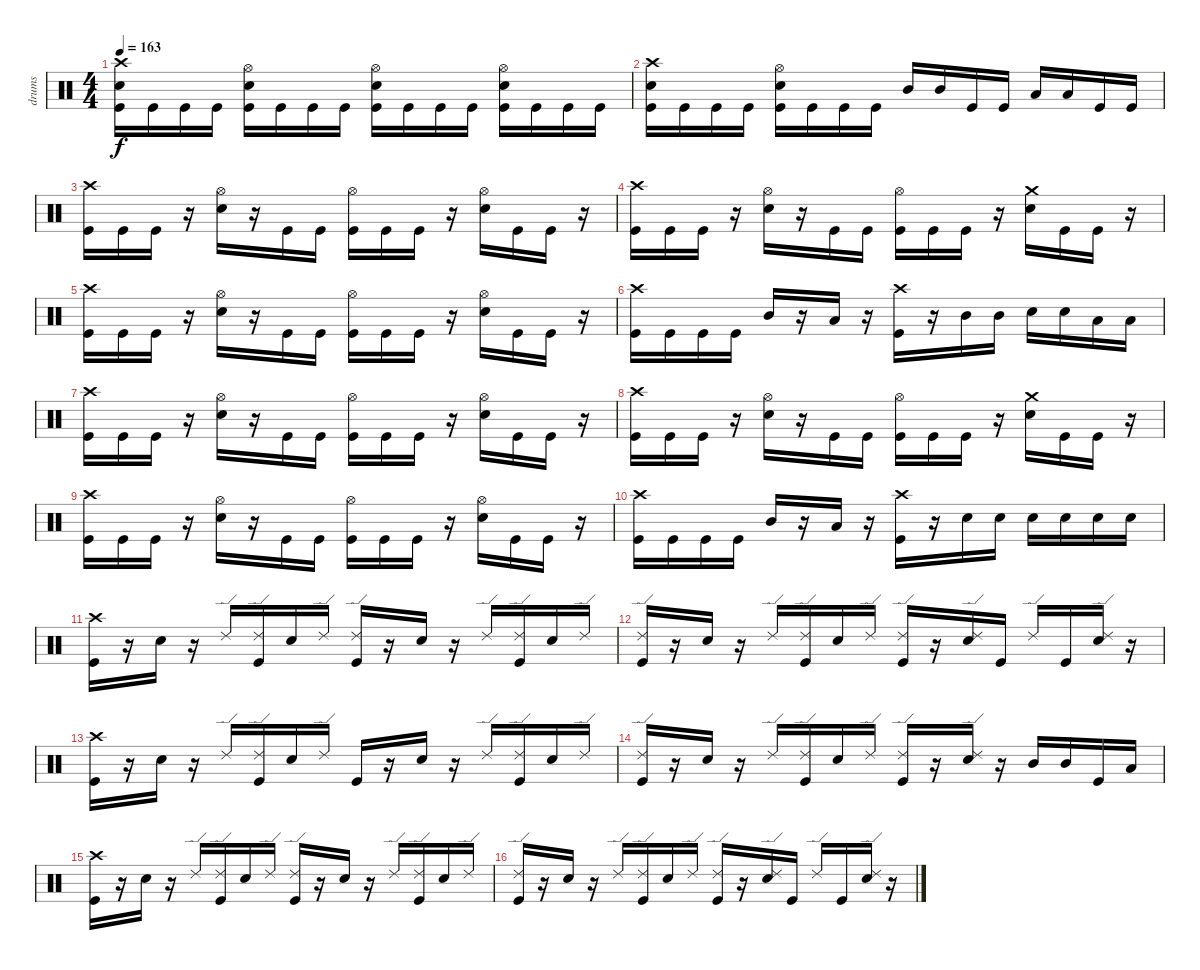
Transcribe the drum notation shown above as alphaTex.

\track ("drums" "drums") {instrument percussion}
\staff {score}
\articulation defaults
\ts (4 4)
\tempo 163
\clef neutral
\ks c
("Crash high (hit)" "Snare (hit) 2" "Kick (hit)").16{dy f} "Kick (hit)".16 "Kick (hit)".16 "Kick (hit)".16 ("Hi-Hat (open)" "Snare (hit) 2" "Kick (hit)").16 "Kick (hit)".16 "Kick (hit)".16 "Kick (hit)".16 ("Hi-Hat (open)" "Snare (hit) 2" "Kick (hit)").16 "Kick (hit)".16 "Kick (hit)".16 "Kick (hit)".16 ("Hi-Hat (open)" "Snare (hit) 2" "Kick (hit)").16 "Kick (hit)".16 "Kick (hit)".16 "Kick (hit)".16 |
("Crash high (hit)" "Snare (hit) 2" "Kick (hit)").16 "Kick (hit)".16 "Kick (hit)".16 "Kick (hit)".16 ("Hi-Hat (open)" "Snare (hit) 2" "Kick (hit)").16 "Kick (hit)".16 "Kick (hit)".16 "Kick (hit)".16 "Mid Tom (hit)".16 "Mid Tom (hit)".16 "Kick (hit)".16 "Kick (hit)".16 "Low Tom (hit)".16 "Low Tom (hit)".16 "Kick (hit)".16 "Kick (hit)".16 |
("Crash high (hit)" "Kick (hit)").16 "Kick (hit)".16 "Kick (hit)".16 r.16 ("Hi-Hat (open)" "Snare (hit) 2").16 r.16 "Kick (hit)".16 "Kick (hit)".16 ("Hi-Hat (open)" "Kick (hit)").16 "Kick (hit)".16 "Kick (hit)".16 r.16 ("Hi-Hat (open)" "Snare (hit) 2").16 "Kick (hit)".16 "Kick (hit)".16 r.16 |
("Crash high (hit)" "Kick (hit)").16 "Kick (hit)".16 "Kick (hit)".16 r.16 ("Hi-Hat (open)" "Snare (hit) 2").16 r.16 "Kick (hit)".16 "Kick (hit)".16 ("Hi-Hat (open)" "Kick (hit)").16 "Kick (hit)".16 "Kick (hit)".16 r.16 ("Crash medium (hit)" "Snare (hit) 2").16 "Kick (hit)".16 "Kick (hit)".16 r.16 |
("Crash high (hit)" "Kick (hit)").16 "Kick (hit)".16 "Kick (hit)".16 r.16 ("Hi-Hat (open)" "Snare (hit) 2").16 r.16 "Kick (hit)".16 "Kick (hit)".16 ("Hi-Hat (open)" "Kick (hit)").16 "Kick (hit)".16 "Kick (hit)".16 r.16 ("Hi-Hat (open)" "Snare (hit) 2").16 "Kick (hit)".16 "Kick (hit)".16 r.16 |
("Crash high (hit)" "Kick (hit)").16 "Kick (hit)".16 "Kick (hit)".16 "Kick (hit)".16 "Mid Tom (hit)".16 r.16 "Low Tom (hit)".16 r.16 ("Crash high (hit)" "Kick (hit)").16 r.16 "Mid Tom (hit)".16 "Mid Tom (hit)".16 "Snare (hit) 2".16 "Snare (hit) 2".16 "Low Tom (hit)".16 "Low Tom (hit)".16 |
("Crash high (hit)" "Kick (hit)").16 "Kick (hit)".16 "Kick (hit)".16 r.16 ("Hi-Hat (open)" "Snare (hit) 2").16 r.16 "Kick (hit)".16 "Kick (hit)".16 ("Hi-Hat (open)" "Kick (hit)").16 "Kick (hit)".16 "Kick (hit)".16 r.16 ("Hi-Hat (open)" "Snare (hit) 2").16 "Kick (hit)".16 "Kick (hit)".16 r.16 |
("Crash high (hit)" "Kick (hit)").16 "Kick (hit)".16 "Kick (hit)".16 r.16 ("Hi-Hat (open)" "Snare (hit) 2").16 r.16 "Kick (hit)".16 "Kick (hit)".16 ("Hi-Hat (open)" "Kick (hit)").16 "Kick (hit)".16 "Kick (hit)".16 r.16 ("Crash medium (hit)" "Snare (hit) 2").16 "Kick (hit)".16 "Kick (hit)".16 r.16 |
("Crash high (hit)" "Kick (hit)").16 "Kick (hit)".16 "Kick (hit)".16 r.16 ("Hi-Hat (open)" "Snare (hit) 2").16 r.16 "Kick (hit)".16 "Kick (hit)".16 ("Hi-Hat (open)" "Kick (hit)").16 "Kick (hit)".16 "Kick (hit)".16 r.16 ("Hi-Hat (open)" "Snare (hit) 2").16 "Kick (hit)".16 "Kick (hit)".16 r.16 |
("Crash high (hit)" "Kick (hit)").16 "Kick (hit)".16 "Kick (hit)".16 "Kick (hit)".16 "Mid Tom (hit)".16 r.16 "Low Tom (hit)".16 r.16 ("Crash high (hit)" "Kick (hit)").16 r.16 "Snare (hit) 2".16 "Snare (hit) 2".16 "Snare (hit) 2".16 "Snare (hit) 2".16 "Snare (hit) 2".16 "Snare (hit) 2".16 |
("Crash high (hit)" "Kick (hit)").16 r.16 "Snare (hit) 2".16 r.16 "Ride (edge) 2".16 ("Ride (edge) 2" "Kick (hit)").16 "Snare (hit) 2".16 "Ride (edge) 2".16 ("Ride (edge) 2" "Kick (hit)").16 r.16 "Snare (hit) 2".16 r.16 "Ride (edge) 2".16 ("Ride (edge) 2" "Kick (hit)").16 "Snare (hit) 2".16 "Ride (edge) 2".16 |
("Kick (hit)" "Ride (edge) 2").16 r.16 "Snare (hit) 2".16 r.16 "Ride (edge) 2".16 ("Ride (edge) 2" "Kick (hit)").16 "Snare (hit) 2".16 "Ride (edge) 2".16 ("Ride (edge) 2" "Kick (hit)").16 r.16 ("Ride (edge) 2" "Snare (hit) 2").16 "Kick (hit)".16 "Ride (edge) 2".16 "Kick (hit)".16 ("Ride (edge) 2" "Snare (hit) 2").16 r.16 |
("Crash high (hit)" "Kick (hit)").16 r.16 "Snare (hit) 2".16 r.16 "Ride (edge) 2".16 ("Ride (edge) 2" "Kick (hit)").16 "Snare (hit) 2".16 "Ride (edge) 2".16 "Kick (hit)".16 r.16 "Snare (hit) 2".16 r.16 "Ride (edge) 2".16 ("Ride (edge) 2" "Kick (hit)").16 "Snare (hit) 2".16 "Ride (edge) 2".16 |
("Kick (hit)" "Ride (edge) 2").16 r.16 "Snare (hit) 2".16 r.16 "Ride (edge) 2".16 ("Ride (edge) 2" "Kick (hit)").16 "Snare (hit) 2".16 "Ride (edge) 2".16 ("Ride (edge) 2" "Kick (hit)").16 r.16 ("Ride (edge) 2" "Snare (hit) 2").16 r.16 "Mid Tom (hit)".16 "Mid Tom (hit)".16 "Kick (hit)".16 "Low Tom (hit)".16 |
("Crash high (hit)" "Kick (hit)").16 r.16 "Snare (hit) 2".16 r.16 "Ride (edge) 2".16 ("Ride (edge) 2" "Kick (hit)").16 "Snare (hit) 2".16 "Ride (edge) 2".16 ("Ride (edge) 2" "Kick (hit)").16 r.16 "Snare (hit) 2".16 r.16 "Ride (edge) 2".16 ("Ride (edge) 2" "Kick (hit)").16 "Snare (hit) 2".16 "Ride (edge) 2".16 |
("Kick (hit)" "Ride (edge) 2").16 r.16 "Snare (hit) 2".16 r.16 "Ride (edge) 2".16 ("Ride (edge) 2" "Kick (hit)").16 "Snare (hit) 2".16 "Ride (edge) 2".16 ("Ride (edge) 2" "Kick (hit)").16 r.16 ("Ride (edge) 2" "Snare (hit) 2").16 "Kick (hit)".16 "Ride (edge) 2".16 "Kick (hit)".16 ("Ride (edge) 2" "Snare (hit) 2").16 r.16
